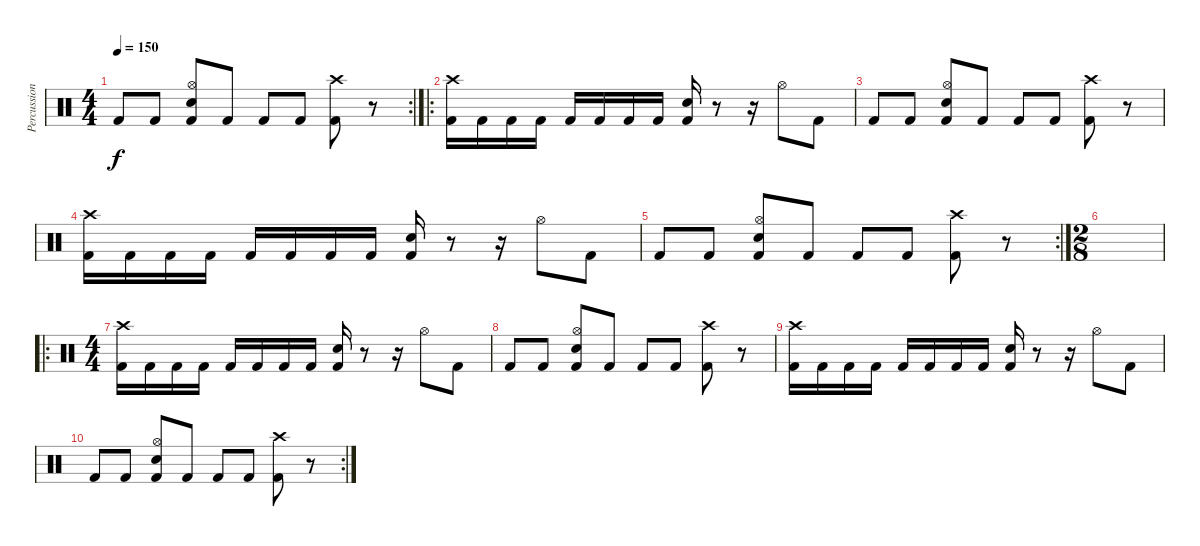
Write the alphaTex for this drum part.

\track ("Percussion" "Percussion") {instrument percussion}
\staff {score}
\articulation defaults
\rc 2
\ts (4 4)
\tempo 150
\clef neutral
\ks c "Kick (hit) 2".8{dy f} "Kick (hit) 2".8
("Hi-Hat (open)" "Electric Snare (hit)" "Kick (hit) 2").8 "Kick (hit) 2".8 "Kick (hit) 2".8 "Kick (hit) 2".8 ("Crash high (hit)" "Kick (hit) 2").8 r.8 |
\ro
("Crash high (hit)" "Kick (hit) 2").16 "Kick (hit) 2".16 "Kick (hit) 2".16 "Kick (hit) 2".16 "Kick (hit) 2".16 "Kick (hit) 2".16 "Kick (hit) 2".16 "Kick (hit) 2".16 ("Electric Snare (hit)" "Kick (hit) 2").16 r.8 r.16 "Hi-Hat (open)".8 "Kick (hit) 2".8 |
"Kick (hit) 2".8 "Kick (hit) 2".8 ("Hi-Hat (open)" "Electric Snare (hit)" "Kick (hit) 2").8 "Kick (hit) 2".8 "Kick (hit) 2".8 "Kick (hit) 2".8 ("Crash high (hit)" "Kick (hit) 2").8 r.8 |
("Crash high (hit)" "Kick (hit) 2").16 "Kick (hit) 2".16 "Kick (hit) 2".16 "Kick (hit) 2".16 "Kick (hit) 2".16 "Kick (hit) 2".16 "Kick (hit) 2".16 "Kick (hit) 2".16 ("Electric Snare (hit)" "Kick (hit) 2").16 r.8 r.16 "Hi-Hat (open)".8 "Kick (hit) 2".8 |
\rc 2 "Kick (hit) 2".8 "Kick (hit) 2".8
("Hi-Hat (open)" "Electric Snare (hit)" "Kick (hit) 2").8 "Kick (hit) 2".8 "Kick (hit) 2".8 "Kick (hit) 2".8 ("Crash high (hit)" "Kick (hit) 2").8 r.8 |
\ts (2 8)
|
\ro
\ts (4 4)
("Crash high (hit)" "Kick (hit) 2").16 "Kick (hit) 2".16 "Kick (hit) 2".16 "Kick (hit) 2".16 "Kick (hit) 2".16 "Kick (hit) 2".16 "Kick (hit) 2".16 "Kick (hit) 2".16 ("Electric Snare (hit)" "Kick (hit) 2").16 r.8 r.16 "Hi-Hat (open)".8 "Kick (hit) 2".8 |
"Kick (hit) 2".8 "Kick (hit) 2".8 ("Hi-Hat (open)" "Electric Snare (hit)" "Kick (hit) 2").8 "Kick (hit) 2".8 "Kick (hit) 2".8 "Kick (hit) 2".8 ("Crash high (hit)" "Kick (hit) 2").8 r.8 |
("Crash high (hit)" "Kick (hit) 2").16 "Kick (hit) 2".16 "Kick (hit) 2".16 "Kick (hit) 2".16 "Kick (hit) 2".16 "Kick (hit) 2".16 "Kick (hit) 2".16 "Kick (hit) 2".16 ("Electric Snare (hit)" "Kick (hit) 2").16 r.8 r.16 "Hi-Hat (open)".8 "Kick (hit) 2".8 |
\rc 2 "Kick (hit) 2".8 "Kick (hit) 2".8
("Hi-Hat (open)" "Electric Snare (hit)" "Kick (hit) 2").8 "Kick (hit) 2".8 "Kick (hit) 2".8 "Kick (hit) 2".8 ("Crash high (hit)" "Kick (hit) 2").8 r.8
